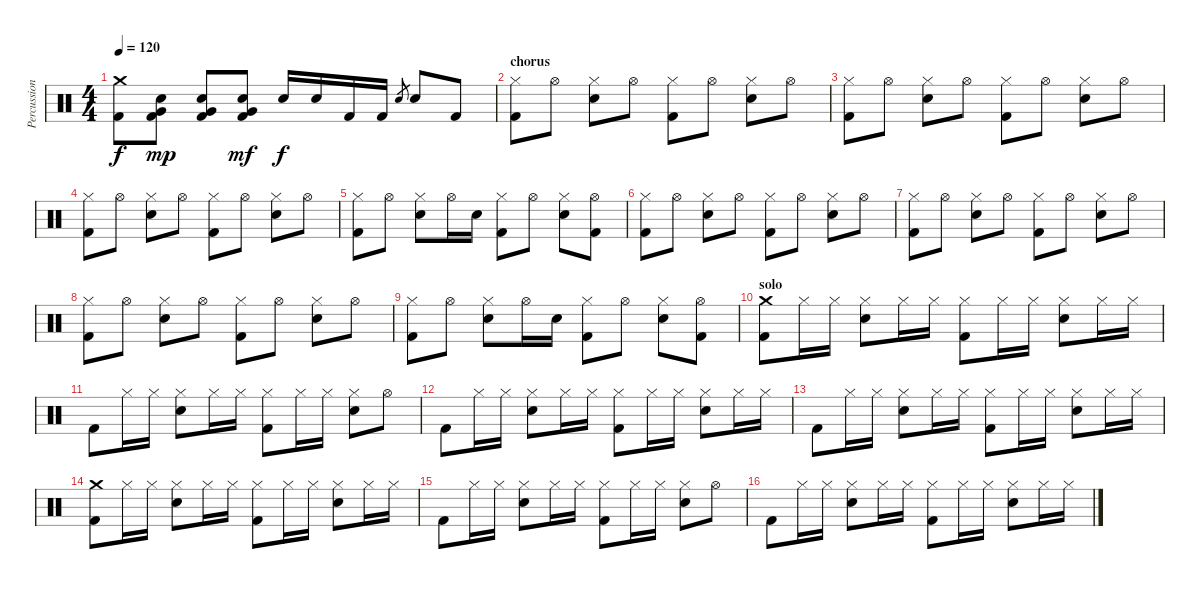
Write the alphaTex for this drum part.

\track ("Percussion" "Percussion") {instrument percussion}
\staff {score}
\articulation defaults
\ts (4 4)
\tempo 120
\clef neutral
\ks c
("Crash medium (hit)"{t} "Kick (hit) 2"{t}).8{dy f} ("Very Low Tom (hit)" "Snare (hit) 2" "Kick (hit) 2").8{dy mp} ("Very Low Tom (hit)" "Snare (hit) 2" "Kick (hit) 2").8 ("Very Low Tom (hit)" "Snare (hit) 2" "Kick (hit) 2").8{dy mf} "Snare (hit) 2".16{dy f} "Snare (hit) 2".16 "Kick (hit) 2".16 "Kick (hit) 2".16 "Snare (hit) 2".8{gr} "Snare (hit) 2".8 "Kick (hit) 2".8 |
\section ("" "chorus")
("Hi-Hat (closed)" "Kick (hit) 2").8 "Hi-Hat (open)".8 ("Hi-Hat (closed)" "Snare (hit) 2").8 "Hi-Hat (open)".8 ("Hi-Hat (closed)" "Kick (hit) 2").8 "Hi-Hat (open)".8 ("Hi-Hat (closed)" "Snare (hit) 2").8 "Hi-Hat (open)".8 |
("Hi-Hat (closed)" "Kick (hit) 2").8 "Hi-Hat (open)".8 ("Hi-Hat (closed)" "Snare (hit) 2").8 "Hi-Hat (open)".8 ("Hi-Hat (closed)" "Kick (hit) 2").8 "Hi-Hat (open)".8 ("Hi-Hat (closed)" "Snare (hit) 2").8 "Hi-Hat (open)".8 |
("Hi-Hat (closed)" "Kick (hit) 2").8 "Hi-Hat (open)".8 ("Hi-Hat (closed)" "Snare (hit) 2").8 "Hi-Hat (open)".8 ("Hi-Hat (closed)" "Kick (hit) 2").8 "Hi-Hat (open)".8 ("Hi-Hat (closed)" "Snare (hit) 2").8 "Hi-Hat (open)".8 |
("Hi-Hat (closed)" "Kick (hit) 2").8 "Hi-Hat (open)".8 ("Hi-Hat (closed)" "Snare (hit) 2").8 "Hi-Hat (open)".16 "Snare (hit) 2".16 ("Hi-Hat (closed)" "Kick (hit) 2").8 "Hi-Hat (open)".8 ("Hi-Hat (closed)" "Snare (hit) 2").8 ("Hi-Hat (open)" "Kick (hit) 2").8 |
("Hi-Hat (closed)" "Kick (hit) 2").8 "Hi-Hat (open)".8 ("Hi-Hat (closed)" "Snare (hit) 2").8 "Hi-Hat (open)".8 ("Hi-Hat (closed)" "Kick (hit) 2").8 "Hi-Hat (open)".8 ("Hi-Hat (closed)" "Snare (hit) 2").8 "Hi-Hat (open)".8 |
("Hi-Hat (closed)" "Kick (hit) 2").8 "Hi-Hat (open)".8 ("Hi-Hat (closed)" "Snare (hit) 2").8 "Hi-Hat (open)".8 ("Hi-Hat (closed)" "Kick (hit) 2").8 "Hi-Hat (open)".8 ("Hi-Hat (closed)" "Snare (hit) 2").8 "Hi-Hat (open)".8 |
("Hi-Hat (closed)" "Kick (hit) 2").8 "Hi-Hat (open)".8 ("Hi-Hat (closed)" "Snare (hit) 2").8 "Hi-Hat (open)".8 ("Hi-Hat (closed)" "Kick (hit) 2").8 "Hi-Hat (open)".8 ("Hi-Hat (closed)" "Snare (hit) 2").8 "Hi-Hat (open)".8 |
("Hi-Hat (closed)" "Kick (hit) 2").8 "Hi-Hat (open)".8 ("Hi-Hat (closed)" "Snare (hit) 2").8 "Hi-Hat (open)".16 "Snare (hit) 2".16 ("Hi-Hat (closed)" "Kick (hit) 2").8 "Hi-Hat (open)".8 ("Hi-Hat (closed)" "Snare (hit) 2").8 ("Hi-Hat (open)" "Kick (hit) 2").8 |
\section ("" "solo")
("Crash medium (hit)" "Kick (hit) 2").8 "Hi-Hat (closed)".16 "Hi-Hat (closed)".16 ("Hi-Hat (closed)" "Snare (hit) 2").8 "Hi-Hat (closed)".16 "Hi-Hat (closed)".16 ("Hi-Hat (closed)" "Kick (hit) 2").8 "Hi-Hat (closed)".16 "Hi-Hat (closed)".16 ("Hi-Hat (closed)" "Snare (hit) 2").8 "Hi-Hat (closed)".16 "Hi-Hat (closed)".16 |
"Kick (hit) 2".8 "Hi-Hat (closed)".16 "Hi-Hat (closed)".16 ("Hi-Hat (closed)" "Snare (hit) 2").8 "Hi-Hat (closed)".16 "Hi-Hat (closed)".16 ("Hi-Hat (closed)" "Kick (hit) 2").8 "Hi-Hat (closed)".16 "Hi-Hat (closed)".16 ("Hi-Hat (closed)" "Snare (hit) 2").8 "Hi-Hat (open)".8 |
"Kick (hit) 2".8 "Hi-Hat (closed)".16 "Hi-Hat (closed)".16 ("Hi-Hat (closed)" "Snare (hit) 2").8 "Hi-Hat (closed)".16 "Hi-Hat (closed)".16 ("Hi-Hat (closed)" "Kick (hit) 2").8 "Hi-Hat (closed)".16 "Hi-Hat (closed)".16 ("Hi-Hat (closed)" "Snare (hit) 2").8 "Hi-Hat (closed)".16 "Hi-Hat (closed)".16 |
"Kick (hit) 2".8 "Hi-Hat (closed)".16 "Hi-Hat (closed)".16 ("Hi-Hat (closed)" "Snare (hit) 2").8 "Hi-Hat (closed)".16 "Hi-Hat (closed)".16 ("Hi-Hat (closed)" "Kick (hit) 2").8 "Hi-Hat (closed)".16 "Hi-Hat (closed)".16 ("Hi-Hat (closed)" "Snare (hit) 2").8 "Hi-Hat (closed)".16 "Hi-Hat (closed)".16 |
("Crash medium (hit)" "Kick (hit) 2").8 "Hi-Hat (closed)".16 "Hi-Hat (closed)".16 ("Hi-Hat (closed)" "Snare (hit) 2").8 "Hi-Hat (closed)".16 "Hi-Hat (closed)".16 ("Hi-Hat (closed)" "Kick (hit) 2").8 "Hi-Hat (closed)".16 "Hi-Hat (closed)".16 ("Hi-Hat (closed)" "Snare (hit) 2").8 "Hi-Hat (closed)".16 "Hi-Hat (closed)".16 |
"Kick (hit) 2".8 "Hi-Hat (closed)".16 "Hi-Hat (closed)".16 ("Hi-Hat (closed)" "Snare (hit) 2").8 "Hi-Hat (closed)".16 "Hi-Hat (closed)".16 ("Hi-Hat (closed)" "Kick (hit) 2").8 "Hi-Hat (closed)".16 "Hi-Hat (closed)".16 ("Hi-Hat (closed)" "Snare (hit) 2").8 "Hi-Hat (open)".8 |
"Kick (hit) 2".8 "Hi-Hat (closed)".16 "Hi-Hat (closed)".16 ("Hi-Hat (closed)" "Snare (hit) 2").8 "Hi-Hat (closed)".16 "Hi-Hat (closed)".16 ("Hi-Hat (closed)" "Kick (hit) 2").8 "Hi-Hat (closed)".16 "Hi-Hat (closed)".16 ("Hi-Hat (closed)" "Snare (hit) 2").8 "Hi-Hat (closed)".16 "Hi-Hat (closed)".16
